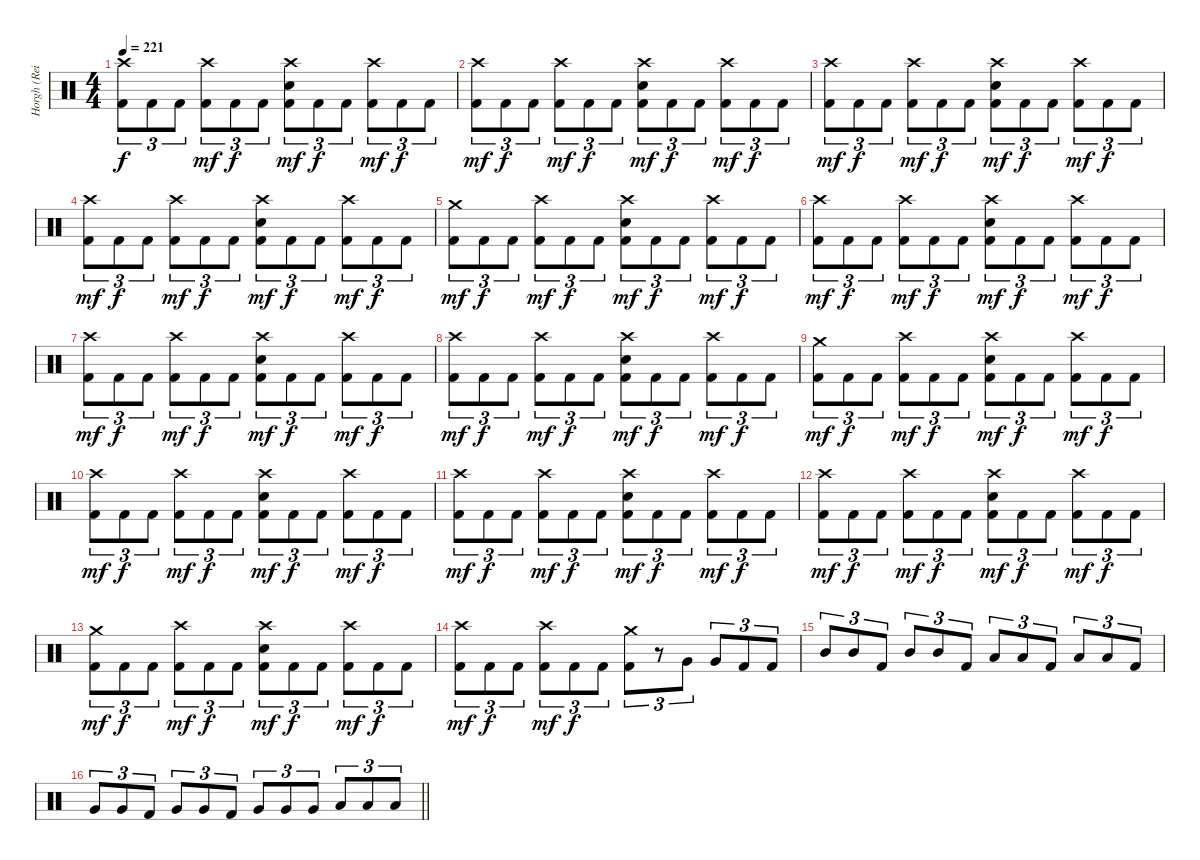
\track ("Horgh (Reidar Horghagen)" "Horgh (Rei") {instrument percussion}
\staff {score}
\articulation defaults
\ts (4 4)
\tempo 221
\clef neutral
\ks c
("Crash high (hit)" "Kick (hit) 2").8{tu (3 2) dy f} "Kick (hit) 2".8{tu (3 2)} "Kick (hit) 2".8{tu (3 2)} ("Crash high (hit)" "Kick (hit) 2").8{tu (3 2) dy mf} "Kick (hit) 2".8{tu (3 2) dy f} "Kick (hit) 2".8{tu (3 2)} ("Crash high (hit)" "Snare (hit) 2" "Kick (hit) 2").8{tu (3 2) dy mf} "Kick (hit) 2".8{tu (3 2) dy f} "Kick (hit) 2".8{tu (3 2)} ("Crash high (hit)" "Kick (hit) 2").8{tu (3 2) dy mf} "Kick (hit) 2".8{tu (3 2) dy f} "Kick (hit) 2".8{tu (3 2)} |
("Crash high (hit)" "Kick (hit) 2").8{tu (3 2) dy mf} "Kick (hit) 2".8{tu (3 2) dy f} "Kick (hit) 2".8{tu (3 2)} ("Crash high (hit)" "Kick (hit) 2").8{tu (3 2) dy mf} "Kick (hit) 2".8{tu (3 2) dy f} "Kick (hit) 2".8{tu (3 2)} ("Crash high (hit)" "Snare (hit) 2" "Kick (hit) 2").8{tu (3 2) dy mf} "Kick (hit) 2".8{tu (3 2) dy f} "Kick (hit) 2".8{tu (3 2)} ("Crash high (hit)" "Kick (hit) 2").8{tu (3 2) dy mf} "Kick (hit) 2".8{tu (3 2) dy f} "Kick (hit) 2".8{tu (3 2)} |
("Crash high (hit)" "Kick (hit) 2").8{tu (3 2) dy mf} "Kick (hit) 2".8{tu (3 2) dy f} "Kick (hit) 2".8{tu (3 2)} ("Crash high (hit)" "Kick (hit) 2").8{tu (3 2) dy mf} "Kick (hit) 2".8{tu (3 2) dy f} "Kick (hit) 2".8{tu (3 2)} ("Crash high (hit)" "Snare (hit) 2" "Kick (hit) 2").8{tu (3 2) dy mf} "Kick (hit) 2".8{tu (3 2) dy f} "Kick (hit) 2".8{tu (3 2)} ("Crash high (hit)" "Kick (hit) 2").8{tu (3 2) dy mf} "Kick (hit) 2".8{tu (3 2) dy f} "Kick (hit) 2".8{tu (3 2)} |
("Crash high (hit)" "Kick (hit) 2").8{tu (3 2) dy mf} "Kick (hit) 2".8{tu (3 2) dy f} "Kick (hit) 2".8{tu (3 2)} ("Crash high (hit)" "Kick (hit) 2").8{tu (3 2) dy mf} "Kick (hit) 2".8{tu (3 2) dy f} "Kick (hit) 2".8{tu (3 2)} ("Crash high (hit)" "Snare (hit) 2" "Kick (hit) 2").8{tu (3 2) dy mf} "Kick (hit) 2".8{tu (3 2) dy f} "Kick (hit) 2".8{tu (3 2)} ("Crash high (hit)" "Kick (hit) 2").8{tu (3 2) dy mf} "Kick (hit) 2".8{tu (3 2) dy f} "Kick (hit) 2".8{tu (3 2)} |
("Crash medium (hit)" "Kick (hit) 2").8{tu (3 2) dy mf} "Kick (hit) 2".8{tu (3 2) dy f} "Kick (hit) 2".8{tu (3 2)} ("Crash high (hit)" "Kick (hit) 2").8{tu (3 2) dy mf} "Kick (hit) 2".8{tu (3 2) dy f} "Kick (hit) 2".8{tu (3 2)} ("Crash high (hit)" "Snare (hit) 2" "Kick (hit) 2").8{tu (3 2) dy mf} "Kick (hit) 2".8{tu (3 2) dy f} "Kick (hit) 2".8{tu (3 2)} ("Crash high (hit)" "Kick (hit) 2").8{tu (3 2) dy mf} "Kick (hit) 2".8{tu (3 2) dy f} "Kick (hit) 2".8{tu (3 2)} |
("Crash high (hit)" "Kick (hit) 2").8{tu (3 2) dy mf} "Kick (hit) 2".8{tu (3 2) dy f} "Kick (hit) 2".8{tu (3 2)} ("Crash high (hit)" "Kick (hit) 2").8{tu (3 2) dy mf} "Kick (hit) 2".8{tu (3 2) dy f} "Kick (hit) 2".8{tu (3 2)} ("Crash high (hit)" "Snare (hit) 2" "Kick (hit) 2").8{tu (3 2) dy mf} "Kick (hit) 2".8{tu (3 2) dy f} "Kick (hit) 2".8{tu (3 2)} ("Crash high (hit)" "Kick (hit) 2").8{tu (3 2) dy mf} "Kick (hit) 2".8{tu (3 2) dy f} "Kick (hit) 2".8{tu (3 2)} |
("Crash high (hit)" "Kick (hit) 2").8{tu (3 2) dy mf} "Kick (hit) 2".8{tu (3 2) dy f} "Kick (hit) 2".8{tu (3 2)} ("Crash high (hit)" "Kick (hit) 2").8{tu (3 2) dy mf} "Kick (hit) 2".8{tu (3 2) dy f} "Kick (hit) 2".8{tu (3 2)} ("Crash high (hit)" "Snare (hit) 2" "Kick (hit) 2").8{tu (3 2) dy mf} "Kick (hit) 2".8{tu (3 2) dy f} "Kick (hit) 2".8{tu (3 2)} ("Crash high (hit)" "Kick (hit) 2").8{tu (3 2) dy mf} "Kick (hit) 2".8{tu (3 2) dy f} "Kick (hit) 2".8{tu (3 2)} |
("Crash high (hit)" "Kick (hit) 2").8{tu (3 2) dy mf} "Kick (hit) 2".8{tu (3 2) dy f} "Kick (hit) 2".8{tu (3 2)} ("Crash high (hit)" "Kick (hit) 2").8{tu (3 2) dy mf} "Kick (hit) 2".8{tu (3 2) dy f} "Kick (hit) 2".8{tu (3 2)} ("Crash high (hit)" "Snare (hit) 2" "Kick (hit) 2").8{tu (3 2) dy mf} "Kick (hit) 2".8{tu (3 2) dy f} "Kick (hit) 2".8{tu (3 2)} ("Crash high (hit)" "Kick (hit) 2").8{tu (3 2) dy mf} "Kick (hit) 2".8{tu (3 2) dy f} "Kick (hit) 2".8{tu (3 2)} |
("Crash medium (hit)" "Kick (hit) 2").8{tu (3 2) dy mf} "Kick (hit) 2".8{tu (3 2) dy f} "Kick (hit) 2".8{tu (3 2)} ("Crash high (hit)" "Kick (hit) 2").8{tu (3 2) dy mf} "Kick (hit) 2".8{tu (3 2) dy f} "Kick (hit) 2".8{tu (3 2)} ("Crash high (hit)" "Snare (hit) 2" "Kick (hit) 2").8{tu (3 2) dy mf} "Kick (hit) 2".8{tu (3 2) dy f} "Kick (hit) 2".8{tu (3 2)} ("Crash high (hit)" "Kick (hit) 2").8{tu (3 2) dy mf} "Kick (hit) 2".8{tu (3 2) dy f} "Kick (hit) 2".8{tu (3 2)} |
("Crash high (hit)" "Kick (hit) 2").8{tu (3 2) dy mf} "Kick (hit) 2".8{tu (3 2) dy f} "Kick (hit) 2".8{tu (3 2)} ("Crash high (hit)" "Kick (hit) 2").8{tu (3 2) dy mf} "Kick (hit) 2".8{tu (3 2) dy f} "Kick (hit) 2".8{tu (3 2)} ("Crash high (hit)" "Snare (hit) 2" "Kick (hit) 2").8{tu (3 2) dy mf} "Kick (hit) 2".8{tu (3 2) dy f} "Kick (hit) 2".8{tu (3 2)} ("Crash high (hit)" "Kick (hit) 2").8{tu (3 2) dy mf} "Kick (hit) 2".8{tu (3 2) dy f} "Kick (hit) 2".8{tu (3 2)} |
("Crash high (hit)" "Kick (hit) 2").8{tu (3 2) dy mf} "Kick (hit) 2".8{tu (3 2) dy f} "Kick (hit) 2".8{tu (3 2)} ("Crash high (hit)" "Kick (hit) 2").8{tu (3 2) dy mf} "Kick (hit) 2".8{tu (3 2) dy f} "Kick (hit) 2".8{tu (3 2)} ("Crash high (hit)" "Snare (hit) 2" "Kick (hit) 2").8{tu (3 2) dy mf} "Kick (hit) 2".8{tu (3 2) dy f} "Kick (hit) 2".8{tu (3 2)} ("Crash high (hit)" "Kick (hit) 2").8{tu (3 2) dy mf} "Kick (hit) 2".8{tu (3 2) dy f} "Kick (hit) 2".8{tu (3 2)} |
("Crash high (hit)" "Kick (hit) 2").8{tu (3 2) dy mf} "Kick (hit) 2".8{tu (3 2) dy f} "Kick (hit) 2".8{tu (3 2)} ("Crash high (hit)" "Kick (hit) 2").8{tu (3 2) dy mf} "Kick (hit) 2".8{tu (3 2) dy f} "Kick (hit) 2".8{tu (3 2)} ("Crash high (hit)" "Snare (hit) 2" "Kick (hit) 2").8{tu (3 2) dy mf} "Kick (hit) 2".8{tu (3 2) dy f} "Kick (hit) 2".8{tu (3 2)} ("Crash high (hit)" "Kick (hit) 2").8{tu (3 2) dy mf} "Kick (hit) 2".8{tu (3 2) dy f} "Kick (hit) 2".8{tu (3 2)} |
("Crash medium (hit)" "Kick (hit) 2").8{tu (3 2) dy mf} "Kick (hit) 2".8{tu (3 2) dy f} "Kick (hit) 2".8{tu (3 2)} ("Crash high (hit)" "Kick (hit) 2").8{tu (3 2) dy mf} "Kick (hit) 2".8{tu (3 2) dy f} "Kick (hit) 2".8{tu (3 2)} ("Crash high (hit)" "Snare (hit) 2" "Kick (hit) 2").8{tu (3 2) dy mf} "Kick (hit) 2".8{tu (3 2) dy f} "Kick (hit) 2".8{tu (3 2)} ("Crash high (hit)" "Kick (hit) 2").8{tu (3 2) dy mf} "Kick (hit) 2".8{tu (3 2) dy f} "Kick (hit) 2".8{tu (3 2)} |
("Crash high (hit)" "Kick (hit) 2").8{tu (3 2) dy mf} "Kick (hit) 2".8{tu (3 2) dy f} "Kick (hit) 2".8{tu (3 2)} ("Crash high (hit)" "Kick (hit) 2").8{tu (3 2) dy mf} "Kick (hit) 2".8{tu (3 2) dy f} "Kick (hit) 2".8{tu (3 2)} ("Crash medium (hit)" "Kick (hit) 2").8{tu (3 2)} r.8{tu (3 2)} "Very Low Tom (hit)".8{tu (3 2)} "Very Low Tom (hit)".8{tu (3 2)} "Kick (hit) 2".8{tu (3 2)} "Kick (hit) 2".8{tu (3 2)} |
"Mid Tom (hit)".8{tu (3 2)} "Mid Tom (hit)".8{tu (3 2)} "Kick (hit) 2".8{tu (3 2)} "Mid Tom (hit)".8{tu (3 2)} "Mid Tom (hit)".8{tu (3 2)} "Kick (hit) 2".8{tu (3 2)} "Low Tom (hit)".8{tu (3 2)} "Low Tom (hit)".8{tu (3 2)} "Kick (hit) 2".8{tu (3 2)} "Low Tom (hit)".8{tu (3 2)} "Low Tom (hit)".8{tu (3 2)} "Kick (hit) 2".8{tu (3 2)} |
\barLineRight lightlight "Very Low Tom (hit)".8{tu (3 2)} "Very Low Tom (hit)".8{tu (3 2)} "Kick (hit) 2".8{tu (3 2)} "Very Low Tom (hit)".8{tu (3 2)} "Very Low Tom (hit)".8{tu (3 2)} "Kick (hit) 2".8{tu (3 2)} "Very Low Tom (hit)".8{tu (3 2)} "Very Low Tom (hit)".8{tu (3 2)} "Very Low Tom (hit)".8{tu (3 2)} "Low Floor Tom (hit)".8{tu (3 2)} "Low Floor Tom (hit)".8{tu (3 2)} "Low Floor Tom (hit)".8{tu (3 2)}
